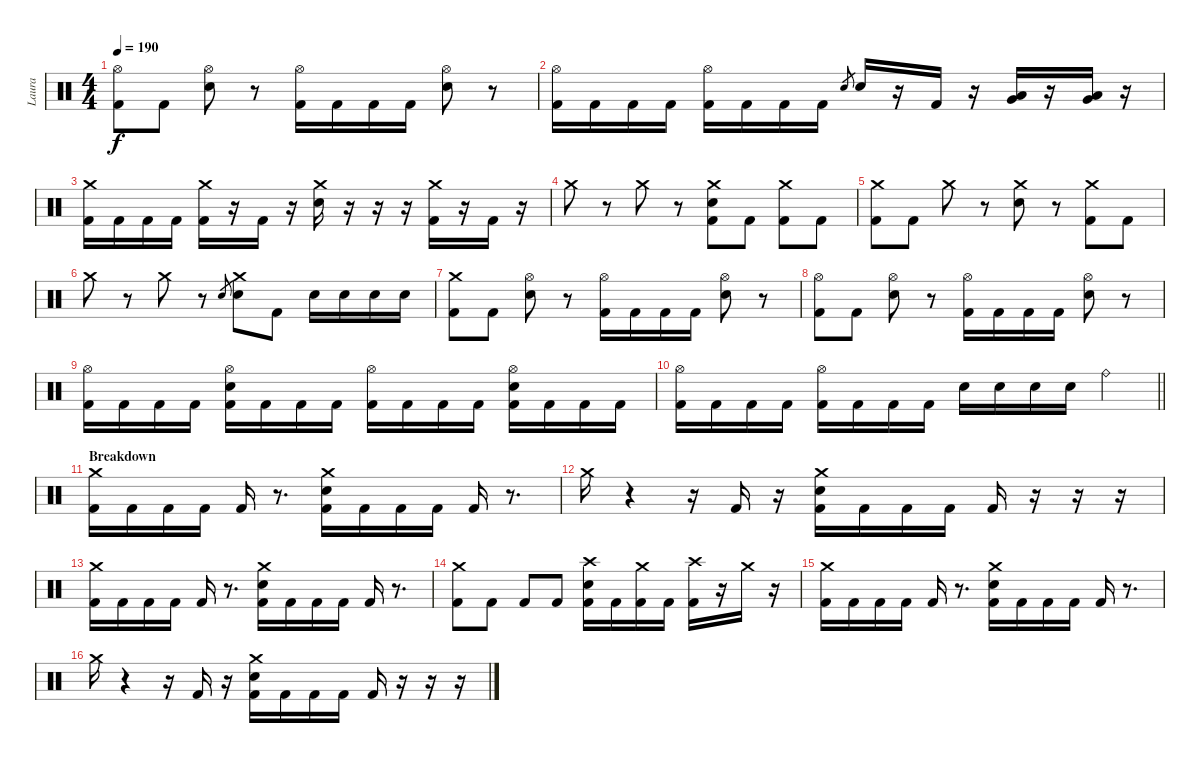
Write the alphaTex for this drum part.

\track ("Laura" "Laura") {instrument percussion}
\staff {score}
\articulation defaults
\ts (4 4)
\tempo 190
\clef neutral
\ks c
("Hi-Hat (open)" "Kick (hit) 2").8{dy f} "Kick (hit) 2".8 ("Hi-Hat (open)" "Electric Snare (hit)").8 r.8 ("Hi-Hat (open)" "Kick (hit) 2").16 "Kick (hit) 2".16 "Kick (hit) 2".16 "Kick (hit) 2".16 ("Hi-Hat (open)" "Electric Snare (hit)").8 r.8 |
("Hi-Hat (open)" "Kick (hit) 2").16 "Kick (hit) 2".16 "Kick (hit) 2".16 "Kick (hit) 2".16 ("Hi-Hat (open)" "Kick (hit) 2").16 "Kick (hit) 2".16 "Kick (hit) 2".16 "Kick (hit) 2".16 "Electric Snare (hit)".8{gr} "Electric Snare (hit)".16 r.16 "Kick (hit) 2".16 r.16 ("Very Low Tom (hit)" "Low Floor Tom (hit)").16 r.16 ("Low Tom (hit)" "Very Low Tom (hit)").16 r.16 |
("Crash medium (hit)" "Kick (hit) 2").16 "Kick (hit) 2".16 "Kick (hit) 2".16 "Kick (hit) 2".16 ("Crash medium (hit)" "Kick (hit) 2").16 r.16 "Kick (hit) 2".16 r.16 ("Crash medium (hit)" "Electric Snare (hit)").16 r.16 r.16 r.16 ("Crash medium (hit)" "Kick (hit) 2").16 r.16 "Kick (hit) 2".16 r.16 |
"Crash medium (hit)".8 r.8 "Crash medium (hit)".8 r.8 ("Crash medium (hit)" "Electric Snare (hit)" "Kick (hit) 2").8 "Kick (hit) 2".8 ("Crash medium (hit)" "Kick (hit) 2").8 "Kick (hit) 2".8 |
("Crash medium (hit)" "Kick (hit) 2").8 "Kick (hit) 2".8 "Crash medium (hit)".8 r.8 ("Crash medium (hit)" "Electric Snare (hit)").8 r.8 ("Crash medium (hit)" "Kick (hit) 2").8 "Kick (hit) 2".8 |
"Crash medium (hit)".8 r.8 "Crash medium (hit)".8 r.8 "Electric Snare (hit)".8{gr} ("Crash medium (hit)" "Electric Snare (hit)").8 "Kick (hit) 2".8 "Electric Snare (hit)".16 "Electric Snare (hit)".16 "Electric Snare (hit)".16 "Electric Snare (hit)".16 |
("Crash medium (hit)" "Kick (hit) 2").8 "Kick (hit) 2".8 ("Hi-Hat (open)" "Electric Snare (hit)").8 r.8 ("Hi-Hat (open)" "Kick (hit) 2").16 "Kick (hit) 2".16 "Kick (hit) 2".16 "Kick (hit) 2".16 ("Hi-Hat (open)" "Electric Snare (hit)").8 r.8 |
("Hi-Hat (open)" "Kick (hit) 2").8 "Kick (hit) 2".8 ("Hi-Hat (open)" "Electric Snare (hit)").8 r.8 ("Hi-Hat (open)" "Kick (hit) 2").16 "Kick (hit) 2".16 "Kick (hit) 2".16 "Kick (hit) 2".16 ("Hi-Hat (open)" "Electric Snare (hit)").8 r.8 |
("Hi-Hat (open)" "Kick (hit) 2").16 "Kick (hit) 2".16 "Kick (hit) 2".16 "Kick (hit) 2".16 ("Hi-Hat (open)" "Electric Snare (hit)" "Kick (hit) 2").16 "Kick (hit) 2".16 "Kick (hit) 2".16 "Kick (hit) 2".16 ("Hi-Hat (open)" "Kick (hit) 2").16 "Kick (hit) 2".16 "Kick (hit) 2".16 "Kick (hit) 2".16 ("Hi-Hat (open)" "Electric Snare (hit)" "Kick (hit) 2").16 "Kick (hit) 2".16 "Kick (hit) 2".16 "Kick (hit) 2".16 |
\barLineRight lightlight
("Hi-Hat (open)" "Kick (hit) 2").16 "Kick (hit) 2".16 "Kick (hit) 2".16 "Kick (hit) 2".16 ("Hi-Hat (open)" "Kick (hit) 2").16 "Kick (hit) 2".16 "Kick (hit) 2".16 "Kick (hit) 2".16 "Electric Snare (hit)".16 "Electric Snare (hit)".16 "Electric Snare (hit)".16 "Electric Snare (hit)".16 "Ride (bell)".4 |
\section ("" "Breakdown")
("Crash medium (hit)" "Kick (hit) 2").16 "Kick (hit) 2".16 "Kick (hit) 2".16 "Kick (hit) 2".16 "Kick (hit) 2".16 r.8{d} ("Crash medium (hit)" "Electric Snare (hit)" "Kick (hit) 2").16 "Kick (hit) 2".16 "Kick (hit) 2".16 "Kick (hit) 2".16 "Kick (hit) 2".16 r.8{d} |
"Crash medium (hit)".16 r.4 r.16 "Kick (hit) 2".16 r.16 ("Crash medium (hit)" "Electric Snare (hit)" "Kick (hit) 2").16 "Kick (hit) 2".16 "Kick (hit) 2".16 "Kick (hit) 2".16 "Kick (hit) 2".16 r.16 r.16 r.16 |
("Crash medium (hit)" "Kick (hit) 2").16 "Kick (hit) 2".16 "Kick (hit) 2".16 "Kick (hit) 2".16 "Kick (hit) 2".16 r.8{d} ("Crash medium (hit)" "Electric Snare (hit)" "Kick (hit) 2").16 "Kick (hit) 2".16 "Kick (hit) 2".16 "Kick (hit) 2".16 "Kick (hit) 2".16 r.8{d} |
("Crash medium (hit)" "Kick (hit) 2").8 "Kick (hit) 2".8 "Kick (hit) 2".8 "Kick (hit) 2".8 ("Crash high (hit)" "Electric Snare (hit)" "Kick (hit) 2").16 "Kick (hit) 2".16 ("Crash medium (hit)" "Kick (hit) 2").16 "Kick (hit) 2".16 ("Crash high (hit)" "Kick (hit) 2").16 r.16 "Crash medium (hit)".16 r.16 |
("Crash medium (hit)" "Kick (hit) 2").16 "Kick (hit) 2".16 "Kick (hit) 2".16 "Kick (hit) 2".16 "Kick (hit) 2".16 r.8{d} ("Crash medium (hit)" "Electric Snare (hit)" "Kick (hit) 2").16 "Kick (hit) 2".16 "Kick (hit) 2".16 "Kick (hit) 2".16 "Kick (hit) 2".16 r.8{d} |
"Crash medium (hit)".16 r.4 r.16 "Kick (hit) 2".16 r.16 ("Crash medium (hit)" "Electric Snare (hit)" "Kick (hit) 2").16 "Kick (hit) 2".16 "Kick (hit) 2".16 "Kick (hit) 2".16 "Kick (hit) 2".16 r.16 r.16 r.16
